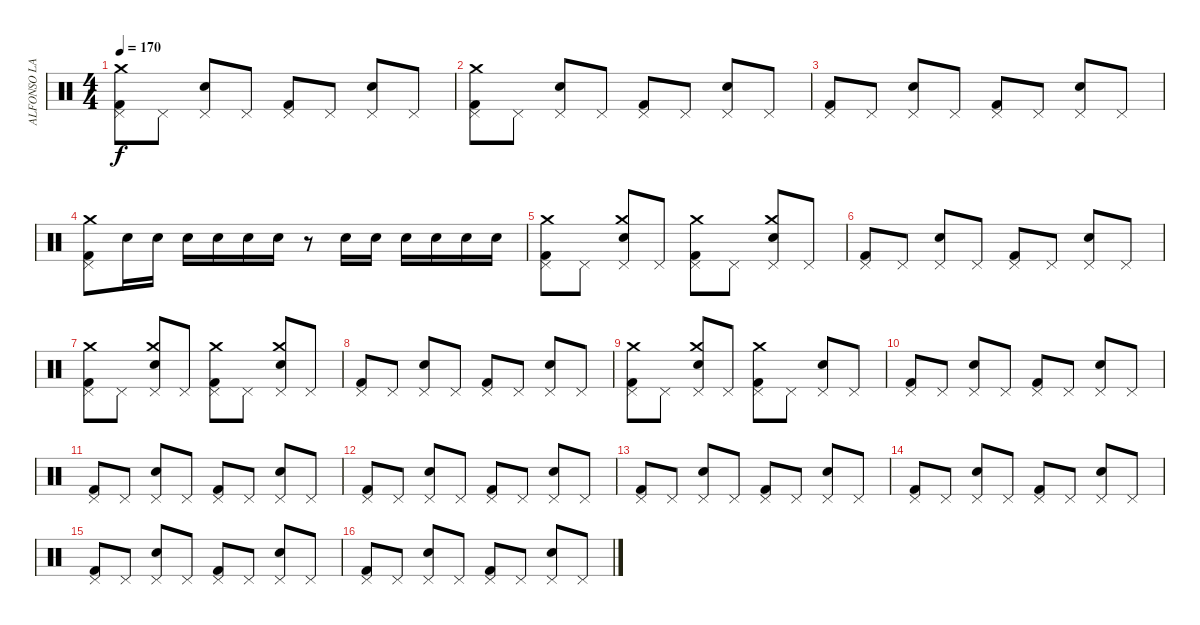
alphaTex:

\track ("ALFONSO LANTERO" "ALFONSO LA") {instrument percussion}
\staff {score}
\articulation defaults
\ts (4 4)
\tempo 170
\clef neutral
\ks c
("Kick (hit) 2" "Pedal Hi-Hat (hit)" "Crash medium (hit)").8{dy f} "Pedal Hi-Hat (hit)".8 ("Electric Snare (hit)" "Pedal Hi-Hat (hit)").8 "Pedal Hi-Hat (hit)".8 ("Kick (hit) 2" "Pedal Hi-Hat (hit)").8 "Pedal Hi-Hat (hit)".8 ("Electric Snare (hit)" "Pedal Hi-Hat (hit)").8 "Pedal Hi-Hat (hit)".8 |
("Kick (hit) 2" "Pedal Hi-Hat (hit)" "Crash medium (hit)").8 "Pedal Hi-Hat (hit)".8 ("Electric Snare (hit)" "Pedal Hi-Hat (hit)").8 "Pedal Hi-Hat (hit)".8 ("Kick (hit) 2" "Pedal Hi-Hat (hit)").8 "Pedal Hi-Hat (hit)".8 ("Electric Snare (hit)" "Pedal Hi-Hat (hit)").8 "Pedal Hi-Hat (hit)".8 |
("Kick (hit) 2" "Pedal Hi-Hat (hit)").8 "Pedal Hi-Hat (hit)".8 ("Electric Snare (hit)" "Pedal Hi-Hat (hit)").8 "Pedal Hi-Hat (hit)".8 ("Kick (hit) 2" "Pedal Hi-Hat (hit)").8 "Pedal Hi-Hat (hit)".8 ("Electric Snare (hit)" "Pedal Hi-Hat (hit)").8 "Pedal Hi-Hat (hit)".8 |
("Kick (hit) 2" "Pedal Hi-Hat (hit)" "Crash medium (hit)").8 "Electric Snare (hit)".16 "Electric Snare (hit)".16 "Electric Snare (hit)".16 "Electric Snare (hit)".16 "Electric Snare (hit)".16 "Electric Snare (hit)".16 r.8 "Electric Snare (hit)".16 "Electric Snare (hit)".16 "Electric Snare (hit)".16 "Electric Snare (hit)".16 "Electric Snare (hit)".16 "Electric Snare (hit)".16 |
("Kick (hit) 2" "Pedal Hi-Hat (hit)" "Crash medium (hit)").8 "Pedal Hi-Hat (hit)".8 ("Electric Snare (hit)" "Pedal Hi-Hat (hit)" "Crash medium (hit)").8 "Pedal Hi-Hat (hit)".8 ("Kick (hit) 2" "Pedal Hi-Hat (hit)" "Crash medium (hit)").8 "Pedal Hi-Hat (hit)".8 ("Electric Snare (hit)" "Pedal Hi-Hat (hit)" "Crash medium (hit)").8 "Pedal Hi-Hat (hit)".8 |
("Kick (hit) 2" "Pedal Hi-Hat (hit)").8 "Pedal Hi-Hat (hit)".8 ("Electric Snare (hit)" "Pedal Hi-Hat (hit)").8 "Pedal Hi-Hat (hit)".8 ("Kick (hit) 2" "Pedal Hi-Hat (hit)").8 "Pedal Hi-Hat (hit)".8 ("Electric Snare (hit)" "Pedal Hi-Hat (hit)").8 "Pedal Hi-Hat (hit)".8 |
("Kick (hit) 2" "Pedal Hi-Hat (hit)" "Crash medium (hit)").8 "Pedal Hi-Hat (hit)".8 ("Electric Snare (hit)" "Pedal Hi-Hat (hit)" "Crash medium (hit)").8 "Pedal Hi-Hat (hit)".8 ("Kick (hit) 2" "Pedal Hi-Hat (hit)" "Crash medium (hit)").8 "Pedal Hi-Hat (hit)".8 ("Electric Snare (hit)" "Pedal Hi-Hat (hit)" "Crash medium (hit)").8 "Pedal Hi-Hat (hit)".8 |
("Kick (hit) 2" "Pedal Hi-Hat (hit)").8 "Pedal Hi-Hat (hit)".8 ("Electric Snare (hit)" "Pedal Hi-Hat (hit)").8 "Pedal Hi-Hat (hit)".8 ("Kick (hit) 2" "Pedal Hi-Hat (hit)").8 "Pedal Hi-Hat (hit)".8 ("Electric Snare (hit)" "Pedal Hi-Hat (hit)").8 "Pedal Hi-Hat (hit)".8 |
("Kick (hit) 2" "Pedal Hi-Hat (hit)" "Crash medium (hit)").8 "Pedal Hi-Hat (hit)".8 ("Electric Snare (hit)" "Pedal Hi-Hat (hit)" "Crash medium (hit)").8 "Pedal Hi-Hat (hit)".8 ("Kick (hit) 2" "Pedal Hi-Hat (hit)" "Crash medium (hit)").8 "Pedal Hi-Hat (hit)".8 ("Electric Snare (hit)" "Pedal Hi-Hat (hit)").8 "Pedal Hi-Hat (hit)".8 |
("Kick (hit) 2" "Pedal Hi-Hat (hit)").8 "Pedal Hi-Hat (hit)".8 ("Electric Snare (hit)" "Pedal Hi-Hat (hit)").8 "Pedal Hi-Hat (hit)".8 ("Kick (hit) 2" "Pedal Hi-Hat (hit)").8 "Pedal Hi-Hat (hit)".8 ("Electric Snare (hit)" "Pedal Hi-Hat (hit)").8 "Pedal Hi-Hat (hit)".8 |
("Kick (hit) 2" "Pedal Hi-Hat (hit)").8 "Pedal Hi-Hat (hit)".8 ("Electric Snare (hit)" "Pedal Hi-Hat (hit)").8 "Pedal Hi-Hat (hit)".8 ("Kick (hit) 2" "Pedal Hi-Hat (hit)").8 "Pedal Hi-Hat (hit)".8 ("Electric Snare (hit)" "Pedal Hi-Hat (hit)").8 "Pedal Hi-Hat (hit)".8 |
("Kick (hit) 2" "Pedal Hi-Hat (hit)").8 "Pedal Hi-Hat (hit)".8 ("Electric Snare (hit)" "Pedal Hi-Hat (hit)").8 "Pedal Hi-Hat (hit)".8 ("Kick (hit) 2" "Pedal Hi-Hat (hit)").8 "Pedal Hi-Hat (hit)".8 ("Electric Snare (hit)" "Pedal Hi-Hat (hit)").8 "Pedal Hi-Hat (hit)".8 |
("Kick (hit) 2" "Pedal Hi-Hat (hit)").8 "Pedal Hi-Hat (hit)".8 ("Electric Snare (hit)" "Pedal Hi-Hat (hit)").8 "Pedal Hi-Hat (hit)".8 ("Kick (hit) 2" "Pedal Hi-Hat (hit)").8 "Pedal Hi-Hat (hit)".8 ("Electric Snare (hit)" "Pedal Hi-Hat (hit)").8 "Pedal Hi-Hat (hit)".8 |
("Kick (hit) 2" "Pedal Hi-Hat (hit)").8 "Pedal Hi-Hat (hit)".8 ("Electric Snare (hit)" "Pedal Hi-Hat (hit)").8 "Pedal Hi-Hat (hit)".8 ("Kick (hit) 2" "Pedal Hi-Hat (hit)").8 "Pedal Hi-Hat (hit)".8 ("Electric Snare (hit)" "Pedal Hi-Hat (hit)").8 "Pedal Hi-Hat (hit)".8 |
("Kick (hit) 2" "Pedal Hi-Hat (hit)").8 "Pedal Hi-Hat (hit)".8 ("Electric Snare (hit)" "Pedal Hi-Hat (hit)").8 "Pedal Hi-Hat (hit)".8 ("Kick (hit) 2" "Pedal Hi-Hat (hit)").8 "Pedal Hi-Hat (hit)".8 ("Electric Snare (hit)" "Pedal Hi-Hat (hit)").8 "Pedal Hi-Hat (hit)".8 |
("Kick (hit) 2" "Pedal Hi-Hat (hit)").8 "Pedal Hi-Hat (hit)".8 ("Electric Snare (hit)" "Pedal Hi-Hat (hit)").8 "Pedal Hi-Hat (hit)".8 ("Kick (hit) 2" "Pedal Hi-Hat (hit)").8 "Pedal Hi-Hat (hit)".8 ("Electric Snare (hit)" "Pedal Hi-Hat (hit)").8 "Pedal Hi-Hat (hit)".8
